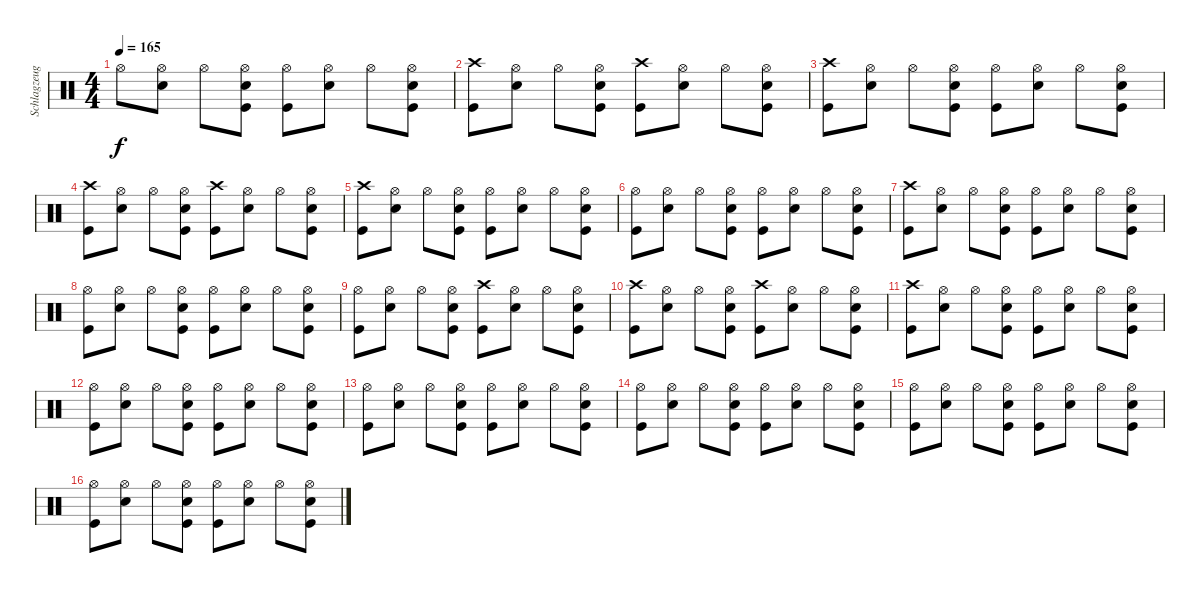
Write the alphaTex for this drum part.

\track ("Schlagzeug" "Schlagzeug") {instrument percussion}
\staff {score}
\articulation defaults
\ts (4 4)
\tempo 165
\clef neutral
\ks c "Hi-Hat (open)".8{dy f}
("Hi-Hat (open)" "Snare (hit) 2").8 "Hi-Hat (open)".8 ("Hi-Hat (open)" "Snare (hit) 2" "Kick (hit)").8 ("Hi-Hat (open)" "Kick (hit)").8 ("Hi-Hat (open)" "Snare (hit) 2").8 "Hi-Hat (open)".8 ("Hi-Hat (open)" "Snare (hit) 2" "Kick (hit)").8 |
("Crash high (hit)" "Kick (hit)").8 ("Hi-Hat (open)" "Snare (hit) 2").8 "Hi-Hat (open)".8 ("Hi-Hat (open)" "Snare (hit) 2" "Kick (hit)").8 ("Crash high (hit)" "Kick (hit)").8 ("Hi-Hat (open)" "Snare (hit) 2").8 "Hi-Hat (open)".8 ("Hi-Hat (open)" "Snare (hit) 2" "Kick (hit)").8 |
("Crash high (hit)" "Kick (hit)").8 ("Hi-Hat (open)" "Snare (hit) 2").8 "Hi-Hat (open)".8 ("Hi-Hat (open)" "Snare (hit) 2" "Kick (hit)").8 ("Hi-Hat (open)" "Kick (hit)").8 ("Hi-Hat (open)" "Snare (hit) 2").8 "Hi-Hat (open)".8 ("Hi-Hat (open)" "Snare (hit) 2" "Kick (hit)").8 |
("Crash high (hit)" "Kick (hit)").8 ("Hi-Hat (open)" "Snare (hit) 2").8 "Hi-Hat (open)".8 ("Hi-Hat (open)" "Snare (hit) 2" "Kick (hit)").8 ("Crash high (hit)" "Kick (hit)").8 ("Hi-Hat (open)" "Snare (hit) 2").8 "Hi-Hat (open)".8 ("Hi-Hat (open)" "Snare (hit) 2" "Kick (hit)").8 |
("Crash high (hit)" "Kick (hit)").8 ("Hi-Hat (open)" "Snare (hit) 2").8 "Hi-Hat (open)".8 ("Hi-Hat (open)" "Snare (hit) 2" "Kick (hit)").8 ("Hi-Hat (open)" "Kick (hit)").8 ("Hi-Hat (open)" "Snare (hit) 2").8 "Hi-Hat (open)".8 ("Hi-Hat (open)" "Snare (hit) 2" "Kick (hit)").8 |
("Hi-Hat (open)" "Kick (hit)").8 ("Hi-Hat (open)" "Snare (hit) 2").8 "Hi-Hat (open)".8 ("Hi-Hat (open)" "Snare (hit) 2" "Kick (hit)").8 ("Hi-Hat (open)" "Kick (hit)").8 ("Hi-Hat (open)" "Snare (hit) 2").8 "Hi-Hat (open)".8 ("Hi-Hat (open)" "Snare (hit) 2" "Kick (hit)").8 |
("Crash high (hit)" "Kick (hit)").8 ("Hi-Hat (open)" "Snare (hit) 2").8 "Hi-Hat (open)".8 ("Hi-Hat (open)" "Snare (hit) 2" "Kick (hit)").8 ("Hi-Hat (open)" "Kick (hit)").8 ("Hi-Hat (open)" "Snare (hit) 2").8 "Hi-Hat (open)".8 ("Hi-Hat (open)" "Snare (hit) 2" "Kick (hit)").8 |
("Hi-Hat (open)" "Kick (hit)").8 ("Hi-Hat (open)" "Snare (hit) 2").8 "Hi-Hat (open)".8 ("Hi-Hat (open)" "Snare (hit) 2" "Kick (hit)").8 ("Hi-Hat (open)" "Kick (hit)").8 ("Hi-Hat (open)" "Snare (hit) 2").8 "Hi-Hat (open)".8 ("Hi-Hat (open)" "Snare (hit) 2" "Kick (hit)").8 |
("Hi-Hat (open)" "Kick (hit)").8 ("Hi-Hat (open)" "Snare (hit) 2").8 "Hi-Hat (open)".8 ("Hi-Hat (open)" "Snare (hit) 2" "Kick (hit)").8 ("Crash high (hit)" "Kick (hit)").8 ("Hi-Hat (open)" "Snare (hit) 2").8 "Hi-Hat (open)".8 ("Hi-Hat (open)" "Snare (hit) 2" "Kick (hit)").8 |
("Crash high (hit)" "Kick (hit)").8 ("Hi-Hat (open)" "Snare (hit) 2").8 "Hi-Hat (open)".8 ("Hi-Hat (open)" "Snare (hit) 2" "Kick (hit)").8 ("Crash high (hit)" "Kick (hit)").8 ("Hi-Hat (open)" "Snare (hit) 2").8 "Hi-Hat (open)".8 ("Hi-Hat (open)" "Snare (hit) 2" "Kick (hit)").8 |
("Crash high (hit)" "Kick (hit)").8 ("Hi-Hat (open)" "Snare (hit) 2").8 "Hi-Hat (open)".8 ("Hi-Hat (open)" "Snare (hit) 2" "Kick (hit)").8 ("Hi-Hat (open)" "Kick (hit)").8 ("Hi-Hat (open)" "Snare (hit) 2").8 "Hi-Hat (open)".8 ("Hi-Hat (open)" "Snare (hit) 2" "Kick (hit)").8 |
("Hi-Hat (open)" "Kick (hit)").8 ("Hi-Hat (open)" "Snare (hit) 2").8 "Hi-Hat (open)".8 ("Hi-Hat (open)" "Snare (hit) 2" "Kick (hit)").8 ("Hi-Hat (open)" "Kick (hit)").8 ("Hi-Hat (open)" "Snare (hit) 2").8 "Hi-Hat (open)".8 ("Hi-Hat (open)" "Snare (hit) 2" "Kick (hit)").8 |
("Hi-Hat (open)" "Kick (hit)").8 ("Hi-Hat (open)" "Snare (hit) 2").8 "Hi-Hat (open)".8 ("Hi-Hat (open)" "Snare (hit) 2" "Kick (hit)").8 ("Hi-Hat (open)" "Kick (hit)").8 ("Hi-Hat (open)" "Snare (hit) 2").8 "Hi-Hat (open)".8 ("Hi-Hat (open)" "Snare (hit) 2" "Kick (hit)").8 |
("Hi-Hat (open)" "Kick (hit)").8 ("Hi-Hat (open)" "Snare (hit) 2").8 "Hi-Hat (open)".8 ("Hi-Hat (open)" "Snare (hit) 2" "Kick (hit)").8 ("Hi-Hat (open)" "Kick (hit)").8 ("Hi-Hat (open)" "Snare (hit) 2").8 "Hi-Hat (open)".8 ("Hi-Hat (open)" "Snare (hit) 2" "Kick (hit)").8 |
("Hi-Hat (open)" "Kick (hit)").8 ("Hi-Hat (open)" "Snare (hit) 2").8 "Hi-Hat (open)".8 ("Hi-Hat (open)" "Snare (hit) 2" "Kick (hit)").8 ("Hi-Hat (open)" "Kick (hit)").8 ("Hi-Hat (open)" "Snare (hit) 2").8 "Hi-Hat (open)".8 ("Hi-Hat (open)" "Snare (hit) 2" "Kick (hit)").8 |
("Hi-Hat (open)" "Kick (hit)").8 ("Hi-Hat (open)" "Snare (hit) 2").8 "Hi-Hat (open)".8 ("Hi-Hat (open)" "Snare (hit) 2" "Kick (hit)").8 ("Hi-Hat (open)" "Kick (hit)").8 ("Hi-Hat (open)" "Snare (hit) 2").8 "Hi-Hat (open)".8 ("Hi-Hat (open)" "Snare (hit) 2" "Kick (hit)").8
